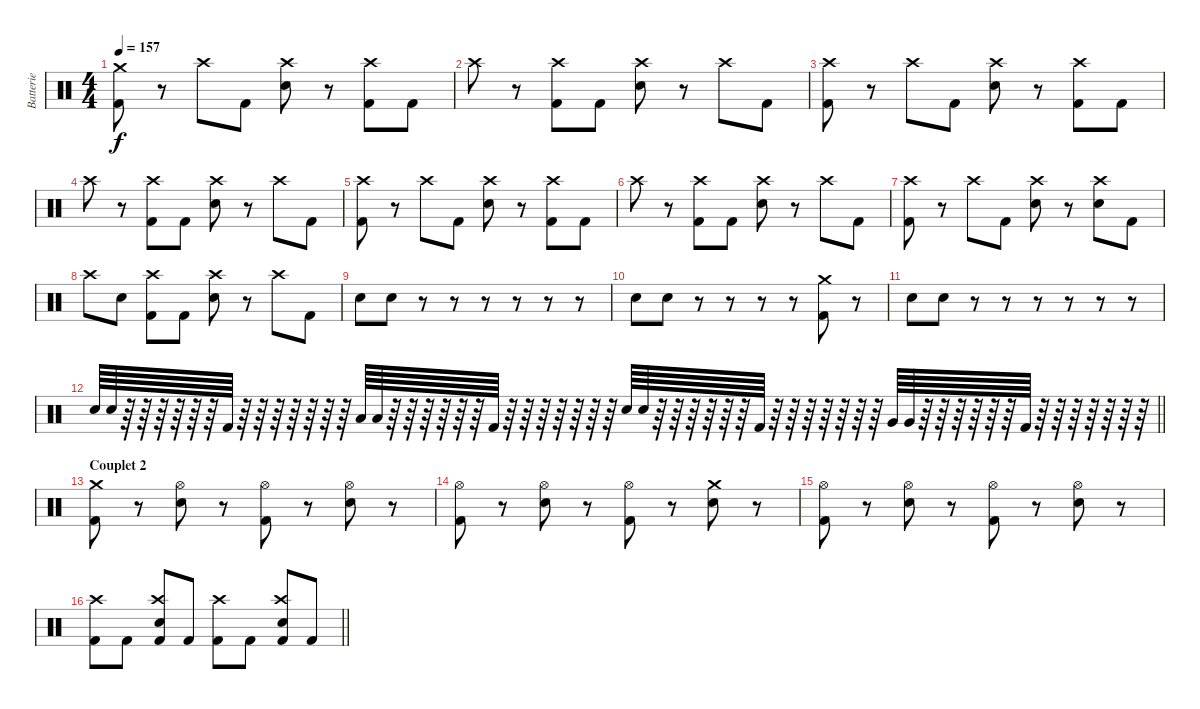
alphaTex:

\track ("Batterie" "Batterie") {instrument percussion}
\staff {score}
\articulation defaults
\ts (4 4)
\tempo 157
\clef neutral
\ks c
("Kick (hit) 2" "Crash medium (hit)").8{dy f} r.8 "Crash high (hit)".8 "Kick (hit) 2".8 ("Electric Snare (hit)" "Crash high (hit)").8 r.8 ("Kick (hit) 2" "Crash high (hit)").8 "Kick (hit) 2".8 |
"Crash high (hit)".8 r.8 ("Kick (hit) 2" "Crash high (hit)").8 "Kick (hit) 2".8 ("Electric Snare (hit)" "Crash high (hit)").8 r.8 "Crash high (hit)".8 "Kick (hit) 2".8 |
("Kick (hit) 2" "Crash high (hit)").8 r.8 "Crash high (hit)".8 "Kick (hit) 2".8 ("Electric Snare (hit)" "Crash high (hit)").8 r.8 ("Kick (hit) 2" "Crash high (hit)").8 "Kick (hit) 2".8 |
"Crash high (hit)".8 r.8 ("Kick (hit) 2" "Crash high (hit)").8 "Kick (hit) 2".8 ("Electric Snare (hit)" "Crash high (hit)").8 r.8 "Crash high (hit)".8 "Kick (hit) 2".8 |
("Kick (hit) 2" "Crash high (hit)").8 r.8 "Crash high (hit)".8 "Kick (hit) 2".8 ("Electric Snare (hit)" "Crash high (hit)").8 r.8 ("Kick (hit) 2" "Crash high (hit)").8 "Kick (hit) 2".8 |
"Crash high (hit)".8 r.8 ("Kick (hit) 2" "Crash high (hit)").8 "Kick (hit) 2".8 ("Electric Snare (hit)" "Crash high (hit)").8 r.8 "Crash high (hit)".8 "Kick (hit) 2".8 |
("Kick (hit) 2" "Crash high (hit)").8 r.8 "Crash high (hit)".8 "Kick (hit) 2".8 ("Electric Snare (hit)" "Crash high (hit)").8 r.8 ("Electric Snare (hit)" "Crash high (hit)").8 "Kick (hit) 2".8 |
"Crash high (hit)".8 "Electric Snare (hit)".8 ("Kick (hit) 2" "Crash high (hit)").8 "Kick (hit) 2".8 ("Electric Snare (hit)" "Crash high (hit)").8 r.8 "Crash high (hit)".8 "Kick (hit) 2".8 |
"Electric Snare (hit)".8 "Electric Snare (hit)".8 r.8 r.8 r.8 r.8 r.8 r.8 |
"Electric Snare (hit)".8 "Electric Snare (hit)".8 r.8 r.8 r.8 r.8 ("Kick (hit) 2" "Crash medium (hit)").8 r.8 |
"Electric Snare (hit)".8 "Electric Snare (hit)".8 r.8 r.8 r.8 r.8 r.8 r.8 |
\barLineRight lightlight "Electric Snare (hit)".64 "Electric Snare (hit)".64
r.64 r.64 r.64 r.64 r.64 r.64 "Kick (hit) 2".64 r.64 r.64 r.64 r.64 r.64 r.64 r.64 "Low Tom (hit)".64 "Low Tom (hit)".64 r.64 r.64 r.64 r.64 r.64 r.64 "Kick (hit) 2".64 r.64 r.64 r.64 r.64 r.64 r.64 r.64 "Electric Snare (hit)".64 "Electric Snare (hit)".64 r.64 r.64 r.64 r.64 r.64 r.64 "Kick (hit) 2".64 r.64 r.64 r.64 r.64 r.64 r.64 r.64 "Very Low Tom (hit)".64 "Very Low Tom (hit)".64 r.64 r.64 r.64 r.64 r.64 r.64 "Kick (hit) 2".64 r.64 r.64 r.64 r.64 r.64 r.64 r.64 |
\section ("" "Couplet 2")
("Kick (hit) 2" "Crash medium (hit)").8 r.8 ("Electric Snare (hit)" "Hi-Hat (open)").8 r.8 ("Kick (hit) 2" "Hi-Hat (open)").8 r.8 ("Electric Snare (hit)" "Hi-Hat (open)").8 r.8 |
("Kick (hit) 2" "Hi-Hat (open)").8 r.8 ("Electric Snare (hit)" "Hi-Hat (open)").8 r.8 ("Kick (hit) 2" "Hi-Hat (open)").8 r.8 ("Electric Snare (hit)" "Crash medium (hit)").8 r.8 |
("Kick (hit) 2" "Hi-Hat (open)").8 r.8 ("Electric Snare (hit)" "Hi-Hat (open)").8 r.8 ("Kick (hit) 2" "Hi-Hat (open)").8 r.8 ("Electric Snare (hit)" "Hi-Hat (open)").8 r.8 |
\barLineRight lightlight
("Kick (hit) 2" "Crash high (hit)").8 "Kick (hit) 2".8 ("Kick (hit) 2" "Electric Snare (hit)" "Crash high (hit)").8 "Kick (hit) 2".8 ("Kick (hit) 2" "Crash high (hit)").8 "Kick (hit) 2".8 ("Kick (hit) 2" "Electric Snare (hit)" "Crash high (hit)").8 "Kick (hit) 2".8
